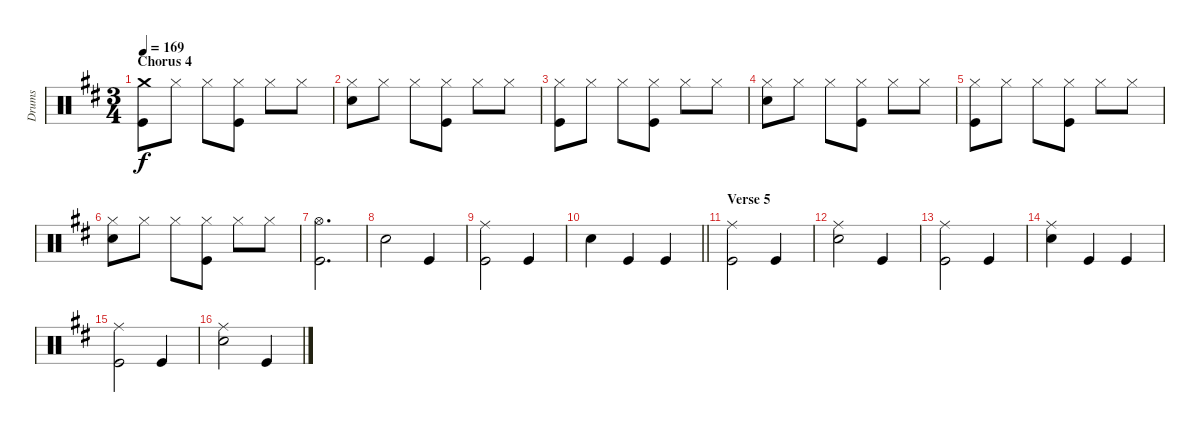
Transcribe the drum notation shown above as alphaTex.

\track ("Drums" "Drums") {instrument percussion}
\staff {score}
\articulation defaults
\ts (3 4)
\section ("" "Chorus 4")
\tempo 169
\clef neutral
\ks d
("Crash medium (hit)" "Kick (hit)").8{dy f} "Hi-Hat (closed)".8 "Hi-Hat (closed)".8 ("Hi-Hat (closed)" "Kick (hit)").8 "Hi-Hat (closed)".8 "Hi-Hat (closed)".8 |
("Hi-Hat (closed)" "Snare (hit) 2").8 "Hi-Hat (closed)".8 "Hi-Hat (closed)".8 ("Hi-Hat (closed)" "Kick (hit)").8 "Hi-Hat (closed)".8 "Hi-Hat (closed)".8 |
("Hi-Hat (closed)" "Kick (hit)").8 "Hi-Hat (closed)".8 "Hi-Hat (closed)".8 ("Hi-Hat (closed)" "Kick (hit)").8 "Hi-Hat (closed)".8 "Hi-Hat (closed)".8 |
("Hi-Hat (closed)" "Snare (hit) 2").8 "Hi-Hat (closed)".8 "Hi-Hat (closed)".8 ("Hi-Hat (closed)" "Kick (hit)").8 "Hi-Hat (closed)".8 "Hi-Hat (closed)".8 |
("Hi-Hat (closed)" "Kick (hit)").8 "Hi-Hat (closed)".8 "Hi-Hat (closed)".8 ("Hi-Hat (closed)" "Kick (hit)").8 "Hi-Hat (closed)".8 "Hi-Hat (closed)".8 |
("Hi-Hat (closed)" "Snare (hit) 2").8 "Hi-Hat (closed)".8 "Hi-Hat (closed)".8 ("Hi-Hat (closed)" "Kick (hit)").8 "Hi-Hat (closed)".8 "Hi-Hat (closed)".8 |
("Hi-Hat (open)" "Kick (hit)").2{d} |
"Snare (hit) 2".2 "Kick (hit)".4 |
("Ride (middle)" "Kick (hit)").2 "Kick (hit)".4 |
\barLineRight lightlight "Snare (hit) 2".4 "Kick (hit)".4 "Kick (hit)".4
|
\section ("" "Verse 5")
("Ride (middle)" "Kick (hit)").2 "Kick (hit)".4 |
("Ride (middle)" "Snare (hit) 2").2 "Kick (hit)".4 |
("Ride (middle)" "Kick (hit)").2 "Kick (hit)".4 |
("Ride (middle)" "Snare (hit) 2").4 "Kick (hit)".4 "Kick (hit)".4 |
("Ride (middle)" "Kick (hit)").2 "Kick (hit)".4 |
("Ride (middle)" "Snare (hit) 2").2 "Kick (hit)".4
